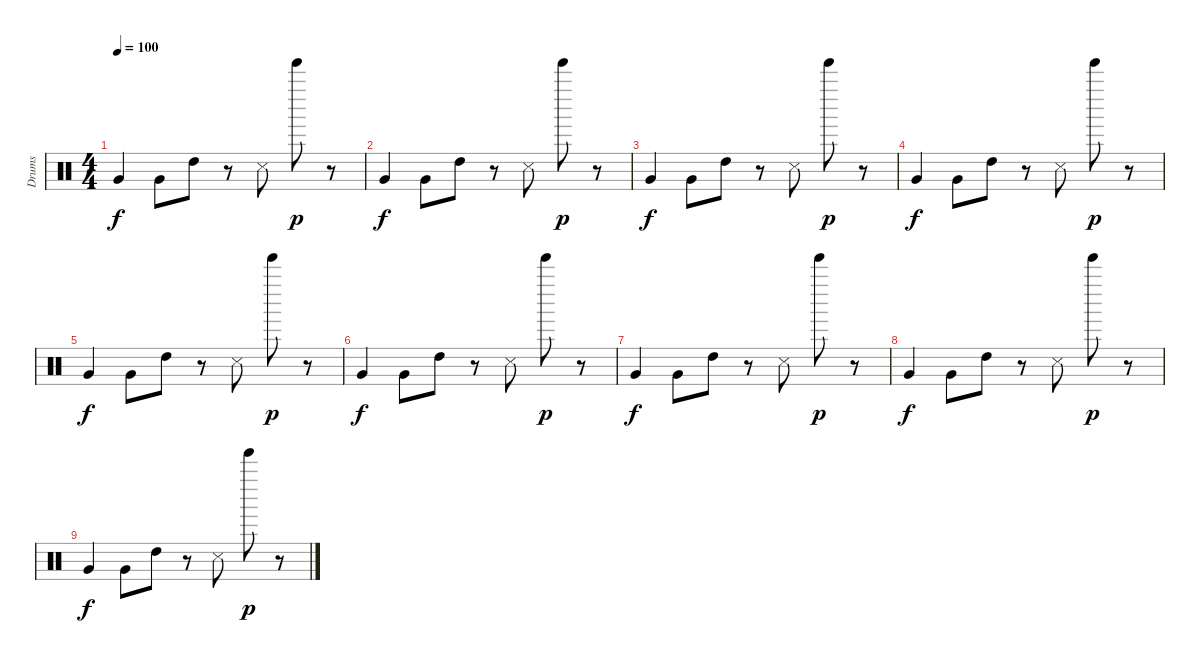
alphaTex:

\track ("Drums" "Drums") {instrument percussion}
\staff {score}
\articulation defaults
\ts (4 4)
\tempo 100
\clef neutral
\ks c "Very Low Tom (hit)".4{dy f} "Very Low Tom (hit)".8 "High Tom (hit)".8
r.8 "Metronome (hit)".8 "Tinkle Bell (hit)".8{dy p} r.8 |
"Very Low Tom (hit)".4{dy f} "Very Low Tom (hit)".8 "High Tom (hit)".8 r.8 "Metronome (hit)".8 "Tinkle Bell (hit)".8{dy p} r.8 |
"Very Low Tom (hit)".4{dy f} "Very Low Tom (hit)".8 "High Tom (hit)".8 r.8 "Metronome (hit)".8 "Tinkle Bell (hit)".8{dy p} r.8 |
"Very Low Tom (hit)".4{dy f} "Very Low Tom (hit)".8 "High Tom (hit)".8 r.8 "Metronome (hit)".8 "Tinkle Bell (hit)".8{dy p} r.8 |
"Very Low Tom (hit)".4{dy f} "Very Low Tom (hit)".8 "High Tom (hit)".8 r.8 "Metronome (hit)".8 "Tinkle Bell (hit)".8{dy p} r.8 |
"Very Low Tom (hit)".4{dy f} "Very Low Tom (hit)".8 "High Tom (hit)".8 r.8 "Metronome (hit)".8 "Tinkle Bell (hit)".8{dy p} r.8 |
"Very Low Tom (hit)".4{dy f} "Very Low Tom (hit)".8 "High Tom (hit)".8 r.8 "Metronome (hit)".8 "Tinkle Bell (hit)".8{dy p} r.8 |
"Very Low Tom (hit)".4{dy f} "Very Low Tom (hit)".8 "High Tom (hit)".8 r.8 "Metronome (hit)".8 "Tinkle Bell (hit)".8{dy p} r.8 |
"Very Low Tom (hit)".4{dy f} "Very Low Tom (hit)".8 "High Tom (hit)".8 r.8 "Metronome (hit)".8 "Tinkle Bell (hit)".8{dy p} r.8
